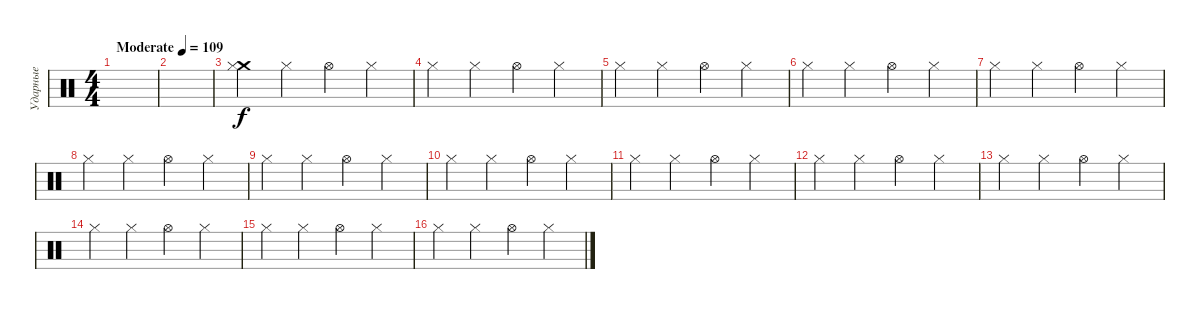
\track ("Ударные" "Ударные") {instrument percussion}
\staff {score}
\articulation defaults
\ts (4 4)
\tempo (109 "Moderate")
\clef neutral
\ks c
|
|
("Crash medium (hit)" "Hi-Hat (closed)").4 "Hi-Hat (closed)".4 "Hi-Hat (open)".4 "Hi-Hat (closed)".4 |
"Hi-Hat (closed)".4 "Hi-Hat (closed)".4 "Hi-Hat (open)".4 "Hi-Hat (closed)".4 |
"Hi-Hat (closed)".4 "Hi-Hat (closed)".4 "Hi-Hat (open)".4 "Hi-Hat (closed)".4 |
"Hi-Hat (closed)".4 "Hi-Hat (closed)".4 "Hi-Hat (open)".4 "Hi-Hat (closed)".4 |
"Hi-Hat (closed)".4 "Hi-Hat (closed)".4 "Hi-Hat (open)".4 "Hi-Hat (closed)".4 |
"Hi-Hat (closed)".4 "Hi-Hat (closed)".4 "Hi-Hat (open)".4 "Hi-Hat (closed)".4 |
"Hi-Hat (closed)".4 "Hi-Hat (closed)".4 "Hi-Hat (open)".4 "Hi-Hat (closed)".4 |
"Hi-Hat (closed)".4 "Hi-Hat (closed)".4 "Hi-Hat (open)".4 "Hi-Hat (closed)".4 |
"Hi-Hat (closed)".4 "Hi-Hat (closed)".4 "Hi-Hat (open)".4 "Hi-Hat (closed)".4 |
"Hi-Hat (closed)".4 "Hi-Hat (closed)".4 "Hi-Hat (open)".4 "Hi-Hat (closed)".4 |
"Hi-Hat (closed)".4 "Hi-Hat (closed)".4 "Hi-Hat (open)".4 "Hi-Hat (closed)".4 |
"Hi-Hat (closed)".4 "Hi-Hat (closed)".4 "Hi-Hat (open)".4 "Hi-Hat (closed)".4 |
"Hi-Hat (closed)".4 "Hi-Hat (closed)".4 "Hi-Hat (open)".4 "Hi-Hat (closed)".4 |
"Hi-Hat (closed)".4 "Hi-Hat (closed)".4 "Hi-Hat (open)".4 "Hi-Hat (closed)".4
